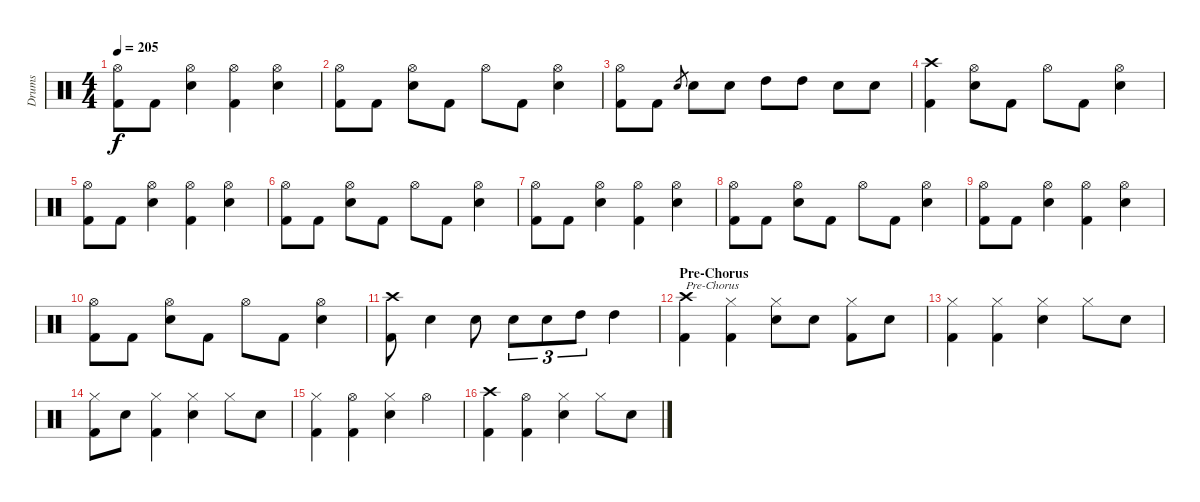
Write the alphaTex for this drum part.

\track ("Drums" "Drums") {instrument percussion}
\staff {score}
\articulation defaults
\ts (4 4)
\tempo 205
\clef neutral
\ks c
("Hi-Hat (open)" "Kick (hit) 2").8{dy f} "Kick (hit) 2".8 ("Hi-Hat (open)" "Electric Snare (hit)").4 ("Hi-Hat (open)" "Kick (hit) 2").4 ("Hi-Hat (open)" "Electric Snare (hit)").4 |
("Hi-Hat (open)" "Kick (hit) 2").8 "Kick (hit) 2".8 ("Hi-Hat (open)" "Electric Snare (hit)").8 "Kick (hit) 2".8 "Hi-Hat (open)".8 "Kick (hit) 2".8 ("Hi-Hat (open)" "Electric Snare (hit)").4 |
("Hi-Hat (open)" "Kick (hit) 2").8 "Kick (hit) 2".8 "Electric Snare (hit)".8{gr} "Electric Snare (hit)".8 "Electric Snare (hit)".8 "High Tom (hit)".8 "High Tom (hit)".8 "Electric Snare (hit)".8 "Electric Snare (hit)".8 |
("Crash high (hit)" "Kick (hit) 2").4 ("Hi-Hat (open)" "Electric Snare (hit)").8 "Kick (hit) 2".8 "Hi-Hat (open)".8 "Kick (hit) 2".8 ("Hi-Hat (open)" "Electric Snare (hit)").4 |
("Hi-Hat (open)" "Kick (hit) 2").8 "Kick (hit) 2".8 ("Hi-Hat (open)" "Electric Snare (hit)").4 ("Hi-Hat (open)" "Kick (hit) 2").4 ("Hi-Hat (open)" "Electric Snare (hit)").4 |
("Hi-Hat (open)" "Kick (hit) 2").8 "Kick (hit) 2".8 ("Hi-Hat (open)" "Electric Snare (hit)").8 "Kick (hit) 2".8 "Hi-Hat (open)".8 "Kick (hit) 2".8 ("Hi-Hat (open)" "Electric Snare (hit)").4 |
("Hi-Hat (open)" "Kick (hit) 2").8 "Kick (hit) 2".8 ("Hi-Hat (open)" "Electric Snare (hit)").4 ("Hi-Hat (open)" "Kick (hit) 2").4 ("Hi-Hat (open)" "Electric Snare (hit)").4 |
("Hi-Hat (open)" "Kick (hit) 2").8 "Kick (hit) 2".8 ("Hi-Hat (open)" "Electric Snare (hit)").8 "Kick (hit) 2".8 "Hi-Hat (open)".8 "Kick (hit) 2".8 ("Hi-Hat (open)" "Electric Snare (hit)").4 |
("Hi-Hat (open)" "Kick (hit) 2").8 "Kick (hit) 2".8 ("Hi-Hat (open)" "Electric Snare (hit)").4 ("Hi-Hat (open)" "Kick (hit) 2").4 ("Hi-Hat (open)" "Electric Snare (hit)").4 |
("Hi-Hat (open)" "Kick (hit) 2").8 "Kick (hit) 2".8 ("Hi-Hat (open)" "Electric Snare (hit)").8 "Kick (hit) 2".8 "Hi-Hat (open)".8 "Kick (hit) 2".8 ("Hi-Hat (open)" "Electric Snare (hit)").4 |
("Crash high (hit)" "Kick (hit) 2").8 "Electric Snare (hit)".4 "Electric Snare (hit)".8 "Electric Snare (hit)".8{tu (3 2)} "Electric Snare (hit)".8{tu (3 2)} "High Tom (hit)".8{tu (3 2)} "High Tom (hit)".4 |
\section ("" "Pre-Chorus")
("Crash high (hit)" "Kick (hit) 2").4{txt "Pre-Chorus"} ("Hi-Hat (closed)" "Kick (hit) 2").4 ("Hi-Hat (closed)" "Electric Snare (hit)").8 "Electric Snare (hit)".8 ("Hi-Hat (closed)" "Kick (hit) 2").8 "Electric Snare (hit)".8 |
("Hi-Hat (closed)" "Kick (hit) 2").4 ("Hi-Hat (closed)" "Kick (hit) 2").4 ("Hi-Hat (closed)" "Electric Snare (hit)").4 "Hi-Hat (closed)".8 "Electric Snare (hit)".8 |
("Hi-Hat (closed)" "Kick (hit) 2").8 "Electric Snare (hit)".8 ("Hi-Hat (closed)" "Kick (hit) 2").4 ("Hi-Hat (closed)" "Electric Snare (hit)").4 "Hi-Hat (closed)".8 "Electric Snare (hit)".8 |
("Hi-Hat (closed)" "Kick (hit) 2").4 ("Hi-Hat (open)" "Kick (hit) 2").4 ("Hi-Hat (closed)" "Electric Snare (hit)").4 "Hi-Hat (open)".4 |
("Crash high (hit)" "Kick (hit) 2").4 ("Hi-Hat (open)" "Kick (hit) 2").4 ("Hi-Hat (closed)" "Electric Snare (hit)").4 "Hi-Hat (closed)".8 "Electric Snare (hit)".8
